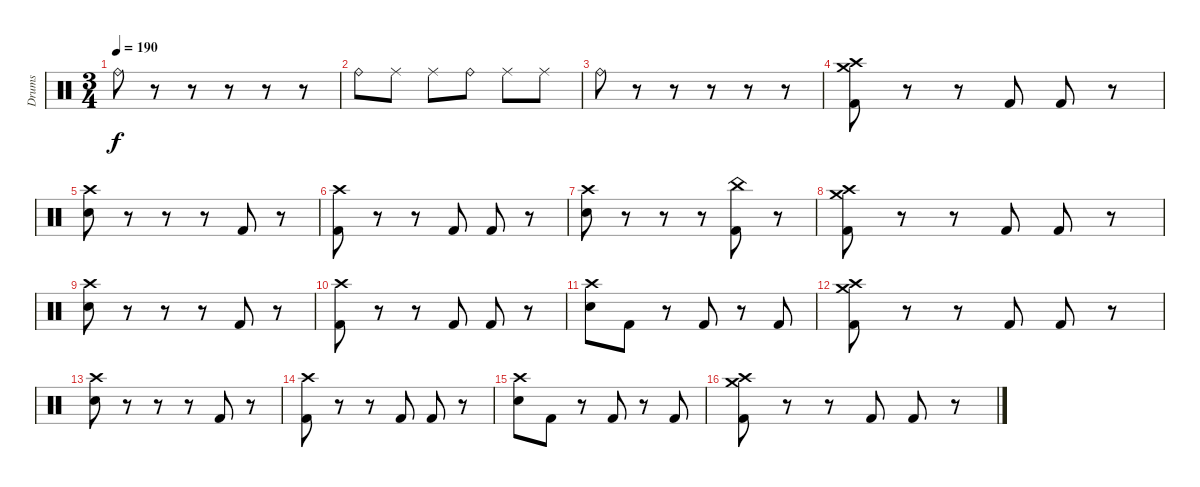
\track ("Drums" "Drums") {instrument percussion}
\staff {score}
\articulation defaults
\ts (3 4)
\tempo 190
\clef neutral
\ks c "Ride (bell)".8{dy f}
r.8 r.8 r.8 r.8 r.8 |
"Ride (bell)".8 "Ride (middle)".8 "Ride (middle)".8 "Ride (bell)".8 "Ride (middle)".8 "Ride (middle)".8 |
"Ride (bell)".8 r.8 r.8 r.8 r.8 r.8 |
("Crash medium (hit)" "Crash high (hit)" "Kick (hit) 2").8 r.8 r.8 "Kick (hit) 2".8 "Kick (hit) 2".8 r.8 |
("Crash high (hit)" "Electric Snare (hit)").8 r.8 r.8 r.8 "Kick (hit) 2".8 r.8 |
("Crash high (hit)" "Kick (hit) 2").8 r.8 r.8 "Kick (hit) 2".8 "Kick (hit) 2".8 r.8 |
("Crash high (hit)" "Electric Snare (hit)").8 r.8 r.8 r.8 ("China (hit)" "Kick (hit) 2").8 r.8 |
("Crash medium (hit)" "Crash high (hit)" "Kick (hit) 2").8 r.8 r.8 "Kick (hit) 2".8 "Kick (hit) 2".8 r.8 |
("Crash high (hit)" "Electric Snare (hit)").8 r.8 r.8 r.8 "Kick (hit) 2".8 r.8 |
("Crash high (hit)" "Kick (hit) 2").8 r.8 r.8 "Kick (hit) 2".8 "Kick (hit) 2".8 r.8 |
("Crash high (hit)" "Electric Snare (hit)").8 "Kick (hit) 2".8 r.8 "Kick (hit) 2".8 r.8 "Kick (hit) 2".8 |
("Crash medium (hit)" "Crash high (hit)" "Kick (hit) 2").8 r.8 r.8 "Kick (hit) 2".8 "Kick (hit) 2".8 r.8 |
("Crash high (hit)" "Electric Snare (hit)").8 r.8 r.8 r.8 "Kick (hit) 2".8 r.8 |
("Crash high (hit)" "Kick (hit) 2").8 r.8 r.8 "Kick (hit) 2".8 "Kick (hit) 2".8 r.8 |
("Crash high (hit)" "Electric Snare (hit)").8 "Kick (hit) 2".8 r.8 "Kick (hit) 2".8 r.8 "Kick (hit) 2".8 |
("Crash medium (hit)" "Crash high (hit)" "Kick (hit) 2").8 r.8 r.8 "Kick (hit) 2".8 "Kick (hit) 2".8 r.8
